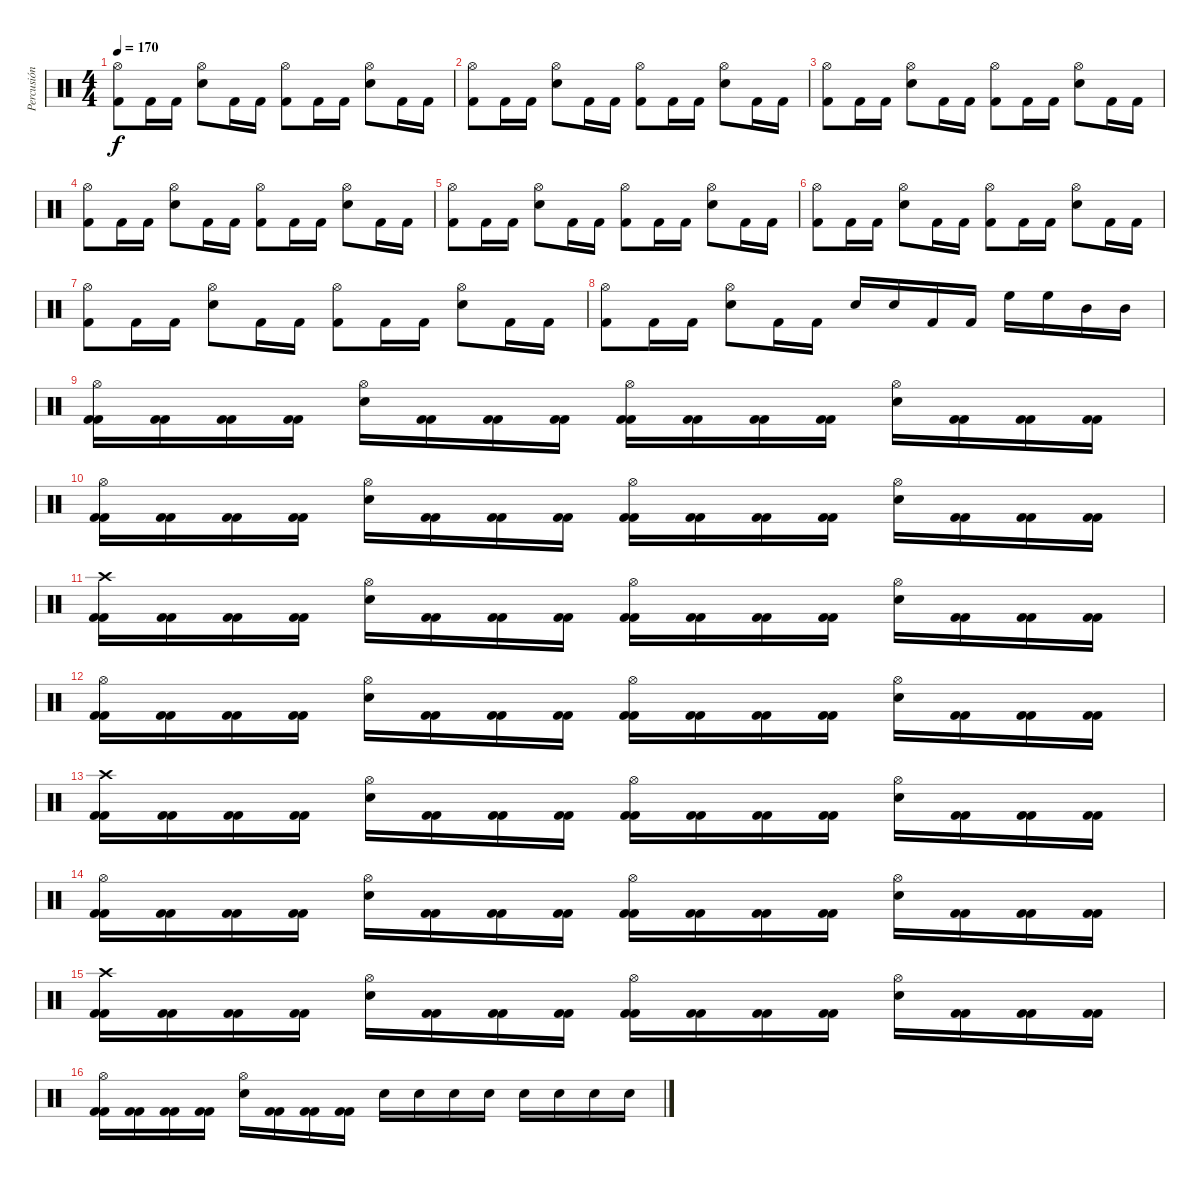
\track ("Percusión" "Percusión") {instrument percussion}
\staff {score}
\articulation defaults
\ts (4 4)
\tempo 170
\clef neutral
\ks c
("Hi-Hat (open)" "Kick (hit) 2").8{dy f} "Kick (hit) 2".16 "Kick (hit) 2".16 ("Hi-Hat (open)" "Electric Snare (hit)").8 "Kick (hit) 2".16 "Kick (hit) 2".16 ("Hi-Hat (open)" "Kick (hit) 2").8 "Kick (hit) 2".16 "Kick (hit) 2".16 ("Hi-Hat (open)" "Electric Snare (hit)").8 "Kick (hit) 2".16 "Kick (hit) 2".16 |
("Hi-Hat (open)" "Kick (hit) 2").8 "Kick (hit) 2".16 "Kick (hit) 2".16 ("Hi-Hat (open)" "Electric Snare (hit)").8 "Kick (hit) 2".16 "Kick (hit) 2".16 ("Hi-Hat (open)" "Kick (hit) 2").8 "Kick (hit) 2".16 "Kick (hit) 2".16 ("Hi-Hat (open)" "Electric Snare (hit)").8 "Kick (hit) 2".16 "Kick (hit) 2".16 |
("Hi-Hat (open)" "Kick (hit) 2").8 "Kick (hit) 2".16 "Kick (hit) 2".16 ("Hi-Hat (open)" "Electric Snare (hit)").8 "Kick (hit) 2".16 "Kick (hit) 2".16 ("Hi-Hat (open)" "Kick (hit) 2").8 "Kick (hit) 2".16 "Kick (hit) 2".16 ("Hi-Hat (open)" "Electric Snare (hit)").8 "Kick (hit) 2".16 "Kick (hit) 2".16 |
("Hi-Hat (open)" "Kick (hit) 2").8 "Kick (hit) 2".16 "Kick (hit) 2".16 ("Hi-Hat (open)" "Electric Snare (hit)").8 "Kick (hit) 2".16 "Kick (hit) 2".16 ("Hi-Hat (open)" "Kick (hit) 2").8 "Kick (hit) 2".16 "Kick (hit) 2".16 ("Hi-Hat (open)" "Electric Snare (hit)").8 "Kick (hit) 2".16 "Kick (hit) 2".16 |
("Hi-Hat (open)" "Kick (hit) 2").8 "Kick (hit) 2".16 "Kick (hit) 2".16 ("Hi-Hat (open)" "Electric Snare (hit)").8 "Kick (hit) 2".16 "Kick (hit) 2".16 ("Hi-Hat (open)" "Kick (hit) 2").8 "Kick (hit) 2".16 "Kick (hit) 2".16 ("Hi-Hat (open)" "Electric Snare (hit)").8 "Kick (hit) 2".16 "Kick (hit) 2".16 |
("Hi-Hat (open)" "Kick (hit) 2").8 "Kick (hit) 2".16 "Kick (hit) 2".16 ("Hi-Hat (open)" "Electric Snare (hit)").8 "Kick (hit) 2".16 "Kick (hit) 2".16 ("Hi-Hat (open)" "Kick (hit) 2").8 "Kick (hit) 2".16 "Kick (hit) 2".16 ("Hi-Hat (open)" "Electric Snare (hit)").8 "Kick (hit) 2".16 "Kick (hit) 2".16 |
("Hi-Hat (open)" "Kick (hit) 2").8 "Kick (hit) 2".16 "Kick (hit) 2".16 ("Hi-Hat (open)" "Electric Snare (hit)").8 "Kick (hit) 2".16 "Kick (hit) 2".16 ("Hi-Hat (open)" "Kick (hit) 2").8 "Kick (hit) 2".16 "Kick (hit) 2".16 ("Hi-Hat (open)" "Electric Snare (hit)").8 "Kick (hit) 2".16 "Kick (hit) 2".16 |
("Hi-Hat (open)" "Kick (hit) 2").8 "Kick (hit) 2".16 "Kick (hit) 2".16 ("Hi-Hat (open)" "Electric Snare (hit)").8 "Kick (hit) 2".16 "Kick (hit) 2".16 "Electric Snare (hit)".16 "Electric Snare (hit)".16 "Kick (hit) 2".16 "Kick (hit) 2".16 "High Floor Tom (hit)".16 "High Floor Tom (hit)".16 "Mid Tom (hit)".16 "Mid Tom (hit)".16 |
("Hi-Hat (open)" "Kick (hit) 2" "Kick (hit) 2").16 ("Kick (hit) 2" "Kick (hit) 2").16 ("Kick (hit) 2" "Kick (hit) 2").16 ("Kick (hit) 2" "Kick (hit) 2").16 ("Hi-Hat (open)" "Electric Snare (hit)").16 ("Kick (hit) 2" "Kick (hit) 2").16 ("Kick (hit) 2" "Kick (hit) 2").16 ("Kick (hit) 2" "Kick (hit) 2").16 ("Hi-Hat (open)" "Kick (hit) 2" "Kick (hit) 2").16 ("Kick (hit) 2" "Kick (hit) 2").16 ("Kick (hit) 2" "Kick (hit) 2").16 ("Kick (hit) 2" "Kick (hit) 2").16 ("Hi-Hat (open)" "Electric Snare (hit)").16 ("Kick (hit) 2" "Kick (hit) 2").16 ("Kick (hit) 2" "Kick (hit) 2").16 ("Kick (hit) 2" "Kick (hit) 2").16 |
("Hi-Hat (open)" "Kick (hit) 2" "Kick (hit) 2").16 ("Kick (hit) 2" "Kick (hit) 2").16 ("Kick (hit) 2" "Kick (hit) 2").16 ("Kick (hit) 2" "Kick (hit) 2").16 ("Hi-Hat (open)" "Electric Snare (hit)").16 ("Kick (hit) 2" "Kick (hit) 2").16 ("Kick (hit) 2" "Kick (hit) 2").16 ("Kick (hit) 2" "Kick (hit) 2").16 ("Hi-Hat (open)" "Kick (hit) 2" "Kick (hit) 2").16 ("Kick (hit) 2" "Kick (hit) 2").16 ("Kick (hit) 2" "Kick (hit) 2").16 ("Kick (hit) 2" "Kick (hit) 2").16 ("Hi-Hat (open)" "Electric Snare (hit)").16 ("Kick (hit) 2" "Kick (hit) 2").16 ("Kick (hit) 2" "Kick (hit) 2").16 ("Kick (hit) 2" "Kick (hit) 2").16 |
("Crash high (hit)" "Kick (hit) 2" "Kick (hit) 2").16 ("Kick (hit) 2" "Kick (hit) 2").16 ("Kick (hit) 2" "Kick (hit) 2").16 ("Kick (hit) 2" "Kick (hit) 2").16 ("Hi-Hat (open)" "Electric Snare (hit)").16 ("Kick (hit) 2" "Kick (hit) 2").16 ("Kick (hit) 2" "Kick (hit) 2").16 ("Kick (hit) 2" "Kick (hit) 2").16 ("Hi-Hat (open)" "Kick (hit) 2" "Kick (hit) 2").16 ("Kick (hit) 2" "Kick (hit) 2").16 ("Kick (hit) 2" "Kick (hit) 2").16 ("Kick (hit) 2" "Kick (hit) 2").16 ("Hi-Hat (open)" "Electric Snare (hit)").16 ("Kick (hit) 2" "Kick (hit) 2").16 ("Kick (hit) 2" "Kick (hit) 2").16 ("Kick (hit) 2" "Kick (hit) 2").16 |
("Hi-Hat (open)" "Kick (hit) 2" "Kick (hit) 2").16 ("Kick (hit) 2" "Kick (hit) 2").16 ("Kick (hit) 2" "Kick (hit) 2").16 ("Kick (hit) 2" "Kick (hit) 2").16 ("Hi-Hat (open)" "Electric Snare (hit)").16 ("Kick (hit) 2" "Kick (hit) 2").16 ("Kick (hit) 2" "Kick (hit) 2").16 ("Kick (hit) 2" "Kick (hit) 2").16 ("Hi-Hat (open)" "Kick (hit) 2" "Kick (hit) 2").16 ("Kick (hit) 2" "Kick (hit) 2").16 ("Kick (hit) 2" "Kick (hit) 2").16 ("Kick (hit) 2" "Kick (hit) 2").16 ("Hi-Hat (open)" "Electric Snare (hit)").16 ("Kick (hit) 2" "Kick (hit) 2").16 ("Kick (hit) 2" "Kick (hit) 2").16 ("Kick (hit) 2" "Kick (hit) 2").16 |
("Crash high (hit)" "Kick (hit) 2" "Kick (hit) 2").16 ("Kick (hit) 2" "Kick (hit) 2").16 ("Kick (hit) 2" "Kick (hit) 2").16 ("Kick (hit) 2" "Kick (hit) 2").16 ("Hi-Hat (open)" "Electric Snare (hit)").16 ("Kick (hit) 2" "Kick (hit) 2").16 ("Kick (hit) 2" "Kick (hit) 2").16 ("Kick (hit) 2" "Kick (hit) 2").16 ("Hi-Hat (open)" "Kick (hit) 2" "Kick (hit) 2").16 ("Kick (hit) 2" "Kick (hit) 2").16 ("Kick (hit) 2" "Kick (hit) 2").16 ("Kick (hit) 2" "Kick (hit) 2").16 ("Hi-Hat (open)" "Electric Snare (hit)").16 ("Kick (hit) 2" "Kick (hit) 2").16 ("Kick (hit) 2" "Kick (hit) 2").16 ("Kick (hit) 2" "Kick (hit) 2").16 |
("Hi-Hat (open)" "Kick (hit) 2" "Kick (hit) 2").16 ("Kick (hit) 2" "Kick (hit) 2").16 ("Kick (hit) 2" "Kick (hit) 2").16 ("Kick (hit) 2" "Kick (hit) 2").16 ("Hi-Hat (open)" "Electric Snare (hit)").16 ("Kick (hit) 2" "Kick (hit) 2").16 ("Kick (hit) 2" "Kick (hit) 2").16 ("Kick (hit) 2" "Kick (hit) 2").16 ("Hi-Hat (open)" "Kick (hit) 2" "Kick (hit) 2").16 ("Kick (hit) 2" "Kick (hit) 2").16 ("Kick (hit) 2" "Kick (hit) 2").16 ("Kick (hit) 2" "Kick (hit) 2").16 ("Hi-Hat (open)" "Electric Snare (hit)").16 ("Kick (hit) 2" "Kick (hit) 2").16 ("Kick (hit) 2" "Kick (hit) 2").16 ("Kick (hit) 2" "Kick (hit) 2").16 |
("Crash high (hit)" "Kick (hit) 2" "Kick (hit) 2").16 ("Kick (hit) 2" "Kick (hit) 2").16 ("Kick (hit) 2" "Kick (hit) 2").16 ("Kick (hit) 2" "Kick (hit) 2").16 ("Hi-Hat (open)" "Electric Snare (hit)").16 ("Kick (hit) 2" "Kick (hit) 2").16 ("Kick (hit) 2" "Kick (hit) 2").16 ("Kick (hit) 2" "Kick (hit) 2").16 ("Hi-Hat (open)" "Kick (hit) 2" "Kick (hit) 2").16 ("Kick (hit) 2" "Kick (hit) 2").16 ("Kick (hit) 2" "Kick (hit) 2").16 ("Kick (hit) 2" "Kick (hit) 2").16 ("Hi-Hat (open)" "Electric Snare (hit)").16 ("Kick (hit) 2" "Kick (hit) 2").16 ("Kick (hit) 2" "Kick (hit) 2").16 ("Kick (hit) 2" "Kick (hit) 2").16 |
("Hi-Hat (open)" "Kick (hit) 2" "Kick (hit) 2").16 ("Kick (hit) 2" "Kick (hit) 2").16 ("Kick (hit) 2" "Kick (hit) 2").16 ("Kick (hit) 2" "Kick (hit) 2").16 ("Hi-Hat (open)" "Electric Snare (hit)").16 ("Kick (hit) 2" "Kick (hit) 2").16 ("Kick (hit) 2" "Kick (hit) 2").16 ("Kick (hit) 2" "Kick (hit) 2").16 "Electric Snare (hit)".16 "Electric Snare (hit)".16 "Electric Snare (hit)".16 "Electric Snare (hit)".16 "Electric Snare (hit)".16 "Electric Snare (hit)".16 "Electric Snare (hit)".16 "Electric Snare (hit)".16
